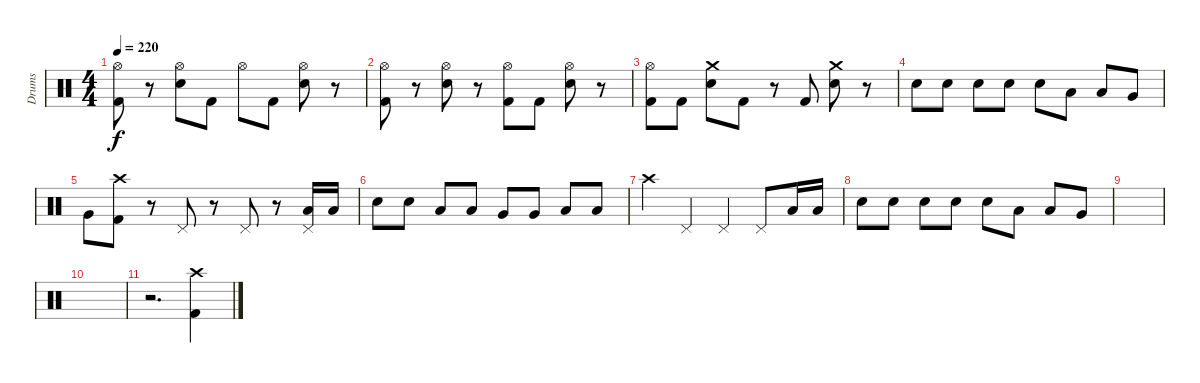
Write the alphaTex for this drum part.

\track ("Drums" "Drums") {instrument percussion}
\staff {score}
\articulation defaults
\ts (4 4)
\tempo 220
\clef neutral
\ks c
("Hi-Hat (open)" "Kick (hit) 2").8{dy f} r.8 ("Hi-Hat (open)" "Snare (hit) 2").8 "Kick (hit) 2".8 "Hi-Hat (open)".8 "Kick (hit) 2".8 ("Hi-Hat (open)" "Snare (hit) 2").8 r.8 |
("Hi-Hat (open)" "Kick (hit) 2").8 r.8 ("Hi-Hat (open)" "Snare (hit) 2").8 r.8 ("Hi-Hat (open)" "Kick (hit) 2").8 "Kick (hit) 2".8 ("Hi-Hat (open)" "Snare (hit) 2").8 r.8 |
("Hi-Hat (open)" "Kick (hit) 2").8 "Kick (hit) 2".8 ("Crash medium (hit)" "Snare (hit) 2").8 "Kick (hit) 2".8 r.8 "Kick (hit) 2".8 ("Crash medium (hit)" "Snare (hit) 2").8 r.8 |
"Snare (hit) 2".8 "Snare (hit) 2".8 "Snare (hit) 2".8 "Snare (hit) 2".8 "Snare (hit) 2".8 "Low Tom (hit)".8 "Low Tom (hit)".8 "Very Low Tom (hit)".8 |
"Very Low Tom (hit)".8 ("Crash high (hit)" "Kick (hit) 2").8 r.8 "Pedal Hi-Hat (hit)".8 r.8 "Pedal Hi-Hat (hit)".8 r.8 ("Pedal Hi-Hat (hit)" "Low Tom (hit)").16 "Low Tom (hit)".16 |
"Snare (hit) 2".8 "Snare (hit) 2".8 "Low Tom (hit)".8 "Low Tom (hit)".8 "Very Low Tom (hit)".8 "Very Low Tom (hit)".8 "Low Floor Tom (hit)".8 "Low Floor Tom (hit)".8 |
"Crash high (hit)".4 "Pedal Hi-Hat (hit)".4 "Pedal Hi-Hat (hit)".4 "Pedal Hi-Hat (hit)".8 "Low Tom (hit)".16 "Low Tom (hit)".16 |
"Snare (hit) 2".8 "Snare (hit) 2".8 "Snare (hit) 2".8 "Snare (hit) 2".8 "Snare (hit) 2".8 "Low Tom (hit)".8 "Low Tom (hit)".8 "Very Low Tom (hit)".8 |
|
|
r.2{d} ("Crash high (hit)" "Kick (hit) 2").4
